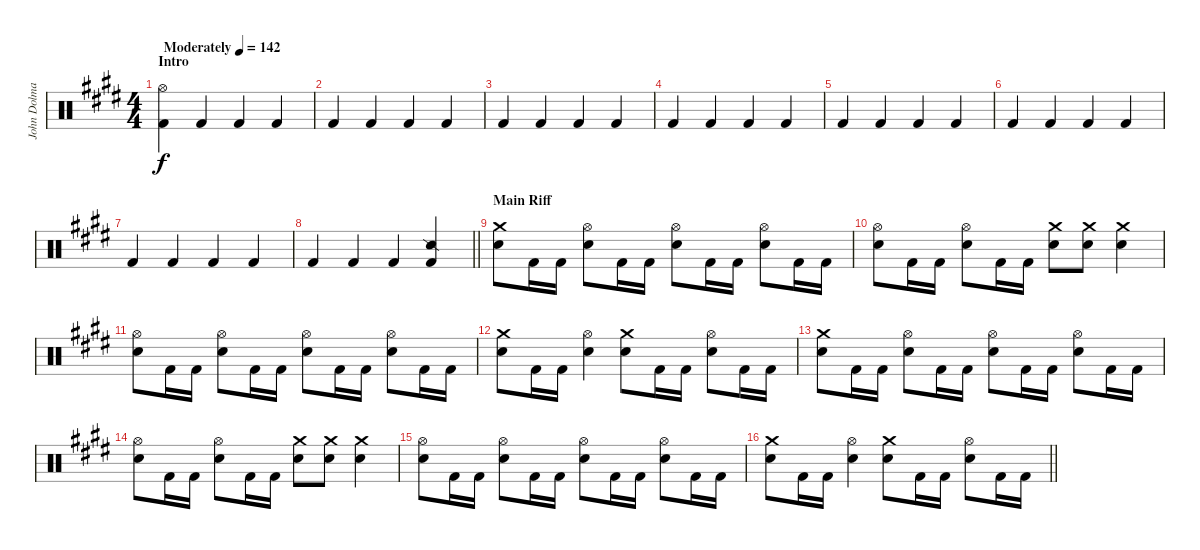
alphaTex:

\track ("John Dolmayan [Drums]" "John Dolma") {instrument percussion}
\staff {score}
\articulation defaults
\ts (4 4)
\section ("" "Intro")
\tempo (142 "Moderately")
\clef neutral
\ks c#minor
("Hi-Hat (open)" "Kick (hit) 2").4{dy f} "Kick (hit) 2".4 "Kick (hit) 2".4 "Kick (hit) 2".4 |
"Kick (hit) 2".4 "Kick (hit) 2".4 "Kick (hit) 2".4 "Kick (hit) 2".4 |
"Kick (hit) 2".4 "Kick (hit) 2".4 "Kick (hit) 2".4 "Kick (hit) 2".4 |
"Kick (hit) 2".4 "Kick (hit) 2".4 "Kick (hit) 2".4 "Kick (hit) 2".4 |
"Kick (hit) 2".4 "Kick (hit) 2".4 "Kick (hit) 2".4 "Kick (hit) 2".4 |
"Kick (hit) 2".4 "Kick (hit) 2".4 "Kick (hit) 2".4 "Kick (hit) 2".4 |
"Kick (hit) 2".4 "Kick (hit) 2".4 "Kick (hit) 2".4 "Kick (hit) 2".4 |
\barLineRight lightlight "Kick (hit) 2".4 "Kick (hit) 2".4 "Kick (hit) 2".4
("Snare (side stick) 2" "Kick (hit) 2").4 |
\section ("" "Main Riff")
("Crash medium (hit)" "Electric Snare (hit)").8 "Kick (hit) 2".16 "Kick (hit) 2".16 ("Hi-Hat (open)" "Electric Snare (hit)").8 "Kick (hit) 2".16 "Kick (hit) 2".16 ("Hi-Hat (open)" "Electric Snare (hit)").8 "Kick (hit) 2".16 "Kick (hit) 2".16 ("Hi-Hat (open)" "Electric Snare (hit)").8 "Kick (hit) 2".16 "Kick (hit) 2".16 |
("Hi-Hat (open)" "Electric Snare (hit)").8 "Kick (hit) 2".16 "Kick (hit) 2".16 ("Hi-Hat (open)" "Electric Snare (hit)").8 "Kick (hit) 2".16 "Kick (hit) 2".16 ("Crash medium (hit)" "Electric Snare (hit)").8 ("Crash medium (hit)" "Electric Snare (hit)").8 ("Crash medium (hit)" "Electric Snare (hit)").4 |
("Hi-Hat (open)" "Electric Snare (hit)").8 "Kick (hit) 2".16 "Kick (hit) 2".16 ("Hi-Hat (open)" "Electric Snare (hit)").8 "Kick (hit) 2".16 "Kick (hit) 2".16 ("Hi-Hat (open)" "Electric Snare (hit)").8 "Kick (hit) 2".16 "Kick (hit) 2".16 ("Hi-Hat (open)" "Electric Snare (hit)").8 "Kick (hit) 2".16 "Kick (hit) 2".16 |
("Crash medium (hit)" "Electric Snare (hit)").8 "Kick (hit) 2".16 "Kick (hit) 2".16 ("Hi-Hat (open)" "Electric Snare (hit)").4 ("Crash medium (hit)" "Electric Snare (hit)").8 "Kick (hit) 2".16 "Kick (hit) 2".16 ("Hi-Hat (open)" "Electric Snare (hit)").8 "Kick (hit) 2".16 "Kick (hit) 2".16 |
("Crash medium (hit)" "Electric Snare (hit)").8 "Kick (hit) 2".16 "Kick (hit) 2".16 ("Hi-Hat (open)" "Electric Snare (hit)").8 "Kick (hit) 2".16 "Kick (hit) 2".16 ("Hi-Hat (open)" "Electric Snare (hit)").8 "Kick (hit) 2".16 "Kick (hit) 2".16 ("Hi-Hat (open)" "Electric Snare (hit)").8 "Kick (hit) 2".16 "Kick (hit) 2".16 |
("Hi-Hat (open)" "Electric Snare (hit)").8 "Kick (hit) 2".16 "Kick (hit) 2".16 ("Hi-Hat (open)" "Electric Snare (hit)").8 "Kick (hit) 2".16 "Kick (hit) 2".16 ("Crash medium (hit)" "Electric Snare (hit)").8 ("Crash medium (hit)" "Electric Snare (hit)").8 ("Crash medium (hit)" "Electric Snare (hit)").4 |
("Hi-Hat (open)" "Electric Snare (hit)").8 "Kick (hit) 2".16 "Kick (hit) 2".16 ("Hi-Hat (open)" "Electric Snare (hit)").8 "Kick (hit) 2".16 "Kick (hit) 2".16 ("Hi-Hat (open)" "Electric Snare (hit)").8 "Kick (hit) 2".16 "Kick (hit) 2".16 ("Hi-Hat (open)" "Electric Snare (hit)").8 "Kick (hit) 2".16 "Kick (hit) 2".16 |
\barLineRight lightlight
("Crash medium (hit)" "Electric Snare (hit)").8 "Kick (hit) 2".16 "Kick (hit) 2".16 ("Hi-Hat (open)" "Electric Snare (hit)").4 ("Crash medium (hit)" "Electric Snare (hit)").8 "Kick (hit) 2".16 "Kick (hit) 2".16 ("Hi-Hat (open)" "Electric Snare (hit)").8 "Kick (hit) 2".16 "Kick (hit) 2".16
